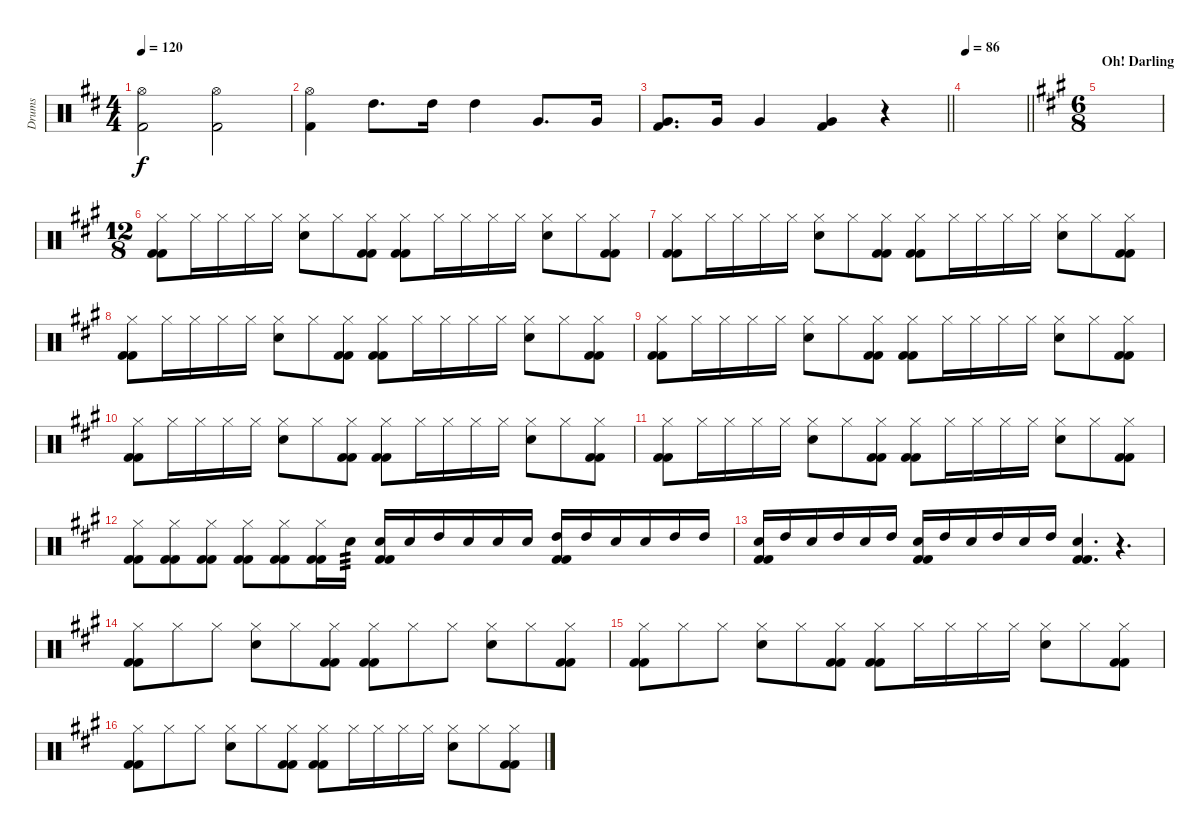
\track ("Drums" "Drums") {instrument percussion}
\staff {score}
\articulation defaults
\ts (4 4)
\tempo 120
\clef neutral
\ks d
("Hi-Hat (open)" "Kick (hit) 2").2{dy f} ("Hi-Hat (open)" "Kick (hit) 2").2 |
("Hi-Hat (open)" "Kick (hit) 2").4 "High Tom (hit)".8{d} "High Tom (hit)".16 "High Tom (hit)".4 "Very Low Tom (hit)".8{d} "Very Low Tom (hit)".16 |
\barLineRight lightlight
("Very Low Tom (hit)" "Kick (hit) 2").8{d} "Very Low Tom (hit)".16 "Very Low Tom (hit)".4 ("Very Low Tom (hit)" "Kick (hit) 2").4 r.4 |
\tempo 86
\barLineRight lightlight
|
\ts (6 8)
\section ("" "Oh! Darling")
\ks a
|
\ts (12 8)
("Hi-Hat (closed)" "Kick (hit) 2" "Kick (hit) 2").8 "Hi-Hat (closed)".16 "Hi-Hat (closed)".16 "Hi-Hat (closed)".16 "Hi-Hat (closed)".16 ("Hi-Hat (closed)" "Snare (hit) 2").8 "Hi-Hat (closed)".8 ("Hi-Hat (closed)" "Kick (hit) 2" "Kick (hit) 2").8 ("Hi-Hat (closed)" "Kick (hit) 2" "Kick (hit) 2").8 "Hi-Hat (closed)".16 "Hi-Hat (closed)".16 "Hi-Hat (closed)".16 "Hi-Hat (closed)".16 ("Hi-Hat (closed)" "Snare (hit) 2").8 "Hi-Hat (closed)".8 ("Hi-Hat (closed)" "Kick (hit) 2" "Kick (hit) 2").8 |
("Hi-Hat (closed)" "Kick (hit) 2" "Kick (hit) 2").8 "Hi-Hat (closed)".16 "Hi-Hat (closed)".16 "Hi-Hat (closed)".16 "Hi-Hat (closed)".16 ("Hi-Hat (closed)" "Snare (hit) 2").8 "Hi-Hat (closed)".8 ("Hi-Hat (closed)" "Kick (hit) 2" "Kick (hit) 2").8 ("Hi-Hat (closed)" "Kick (hit) 2" "Kick (hit) 2").8 "Hi-Hat (closed)".16 "Hi-Hat (closed)".16 "Hi-Hat (closed)".16 "Hi-Hat (closed)".16 ("Hi-Hat (closed)" "Snare (hit) 2").8 "Hi-Hat (closed)".8 ("Hi-Hat (closed)" "Kick (hit) 2" "Kick (hit) 2").8 |
("Hi-Hat (closed)" "Kick (hit) 2" "Kick (hit) 2").8 "Hi-Hat (closed)".16 "Hi-Hat (closed)".16 "Hi-Hat (closed)".16 "Hi-Hat (closed)".16 ("Hi-Hat (closed)" "Snare (hit) 2").8 "Hi-Hat (closed)".8 ("Hi-Hat (closed)" "Kick (hit) 2" "Kick (hit) 2").8 ("Hi-Hat (closed)" "Kick (hit) 2" "Kick (hit) 2").8 "Hi-Hat (closed)".16 "Hi-Hat (closed)".16 "Hi-Hat (closed)".16 "Hi-Hat (closed)".16 ("Hi-Hat (closed)" "Snare (hit) 2").8 "Hi-Hat (closed)".8 ("Hi-Hat (closed)" "Kick (hit) 2" "Kick (hit) 2").8 |
("Hi-Hat (closed)" "Kick (hit) 2" "Kick (hit) 2").8 "Hi-Hat (closed)".16 "Hi-Hat (closed)".16 "Hi-Hat (closed)".16 "Hi-Hat (closed)".16 ("Hi-Hat (closed)" "Snare (hit) 2").8 "Hi-Hat (closed)".8 ("Hi-Hat (closed)" "Kick (hit) 2" "Kick (hit) 2").8 ("Hi-Hat (closed)" "Kick (hit) 2" "Kick (hit) 2").8 "Hi-Hat (closed)".16 "Hi-Hat (closed)".16 "Hi-Hat (closed)".16 "Hi-Hat (closed)".16 ("Hi-Hat (closed)" "Snare (hit) 2").8 "Hi-Hat (closed)".8 ("Hi-Hat (closed)" "Kick (hit) 2" "Kick (hit) 2").8 |
("Hi-Hat (closed)" "Kick (hit) 2" "Kick (hit) 2").8 "Hi-Hat (closed)".16 "Hi-Hat (closed)".16 "Hi-Hat (closed)".16 "Hi-Hat (closed)".16 ("Hi-Hat (closed)" "Snare (hit) 2").8 "Hi-Hat (closed)".8 ("Hi-Hat (closed)" "Kick (hit) 2" "Kick (hit) 2").8 ("Hi-Hat (closed)" "Kick (hit) 2" "Kick (hit) 2").8 "Hi-Hat (closed)".16 "Hi-Hat (closed)".16 "Hi-Hat (closed)".16 "Hi-Hat (closed)".16 ("Hi-Hat (closed)" "Snare (hit) 2").8 "Hi-Hat (closed)".8 ("Hi-Hat (closed)" "Kick (hit) 2" "Kick (hit) 2").8 |
("Hi-Hat (closed)" "Kick (hit) 2" "Kick (hit) 2").8 "Hi-Hat (closed)".16 "Hi-Hat (closed)".16 "Hi-Hat (closed)".16 "Hi-Hat (closed)".16 ("Hi-Hat (closed)" "Snare (hit) 2").8 "Hi-Hat (closed)".8 ("Hi-Hat (closed)" "Kick (hit) 2" "Kick (hit) 2").8 ("Hi-Hat (closed)" "Kick (hit) 2" "Kick (hit) 2").8 "Hi-Hat (closed)".16 "Hi-Hat (closed)".16 "Hi-Hat (closed)".16 "Hi-Hat (closed)".16 ("Hi-Hat (closed)" "Snare (hit) 2").8 "Hi-Hat (closed)".8 ("Hi-Hat (closed)" "Kick (hit) 2" "Kick (hit) 2").8 |
("Hi-Hat (closed)" "Kick (hit) 2" "Kick (hit) 2").8 ("Hi-Hat (closed)" "Kick (hit) 2" "Kick (hit) 2").8 ("Hi-Hat (closed)" "Kick (hit) 2" "Kick (hit) 2").8 ("Hi-Hat (closed)" "Kick (hit) 2" "Kick (hit) 2").8 ("Hi-Hat (closed)" "Kick (hit) 2" "Kick (hit) 2").8 ("Hi-Hat (closed)" "Kick (hit) 2" "Kick (hit) 2").16 "Snare (hit) 2".16{tp 3} ("Snare (hit) 2" "Kick (hit) 2" "Kick (hit) 2").16 "Snare (hit) 2".16 "High Tom (hit)".16 "Snare (hit) 2".16 "Snare (hit) 2".16 "Snare (hit) 2".16 ("High Tom (hit)" "Kick (hit) 2" "Kick (hit) 2").16 "High Tom (hit)".16 "Snare (hit) 2".16 "Snare (hit) 2".16 "High Tom (hit)".16 "High Tom (hit)".16 |
("Snare (hit) 2" "Kick (hit) 2" "Kick (hit) 2").16 "High Tom (hit)".16 "Snare (hit) 2".16 "High Tom (hit)".16 "Snare (hit) 2".16 "High Tom (hit)".16 ("Snare (hit) 2" "Kick (hit) 2" "Kick (hit) 2").16 "High Tom (hit)".16 "Snare (hit) 2".16 "High Tom (hit)".16 "Snare (hit) 2".16 "High Tom (hit)".16 ("Snare (hit) 2" "Kick (hit) 2" "Kick (hit) 2").4{d} r.4{d} |
("Hi-Hat (closed)" "Kick (hit) 2" "Kick (hit) 2").8 "Hi-Hat (closed)".8 "Hi-Hat (closed)".8 ("Hi-Hat (closed)" "Snare (hit) 2").8 "Hi-Hat (closed)".8 ("Hi-Hat (closed)" "Kick (hit) 2" "Kick (hit) 2").8 ("Hi-Hat (closed)" "Kick (hit) 2" "Kick (hit) 2").8 "Hi-Hat (closed)".8 "Hi-Hat (closed)".8 ("Hi-Hat (closed)" "Snare (hit) 2").8 "Hi-Hat (closed)".8 ("Hi-Hat (closed)" "Kick (hit) 2" "Kick (hit) 2").8 |
("Hi-Hat (closed)" "Kick (hit) 2" "Kick (hit) 2").8 "Hi-Hat (closed)".8 "Hi-Hat (closed)".8 ("Hi-Hat (closed)" "Snare (hit) 2").8 "Hi-Hat (closed)".8 ("Hi-Hat (closed)" "Kick (hit) 2" "Kick (hit) 2").8 ("Hi-Hat (closed)" "Kick (hit) 2" "Kick (hit) 2").8 "Hi-Hat (closed)".16 "Hi-Hat (closed)".16 "Hi-Hat (closed)".16 "Hi-Hat (closed)".16 ("Hi-Hat (closed)" "Snare (hit) 2").8 "Hi-Hat (closed)".8 ("Hi-Hat (closed)" "Kick (hit) 2" "Kick (hit) 2").8 |
("Hi-Hat (closed)" "Kick (hit) 2" "Kick (hit) 2").8 "Hi-Hat (closed)".8 "Hi-Hat (closed)".8 ("Hi-Hat (closed)" "Snare (hit) 2").8 "Hi-Hat (closed)".8 ("Hi-Hat (closed)" "Kick (hit) 2" "Kick (hit) 2").8 ("Hi-Hat (closed)" "Kick (hit) 2" "Kick (hit) 2").8 "Hi-Hat (closed)".16 "Hi-Hat (closed)".16 "Hi-Hat (closed)".16 "Hi-Hat (closed)".16 ("Hi-Hat (closed)" "Snare (hit) 2").8 "Hi-Hat (closed)".8 ("Hi-Hat (closed)" "Kick (hit) 2" "Kick (hit) 2").8
